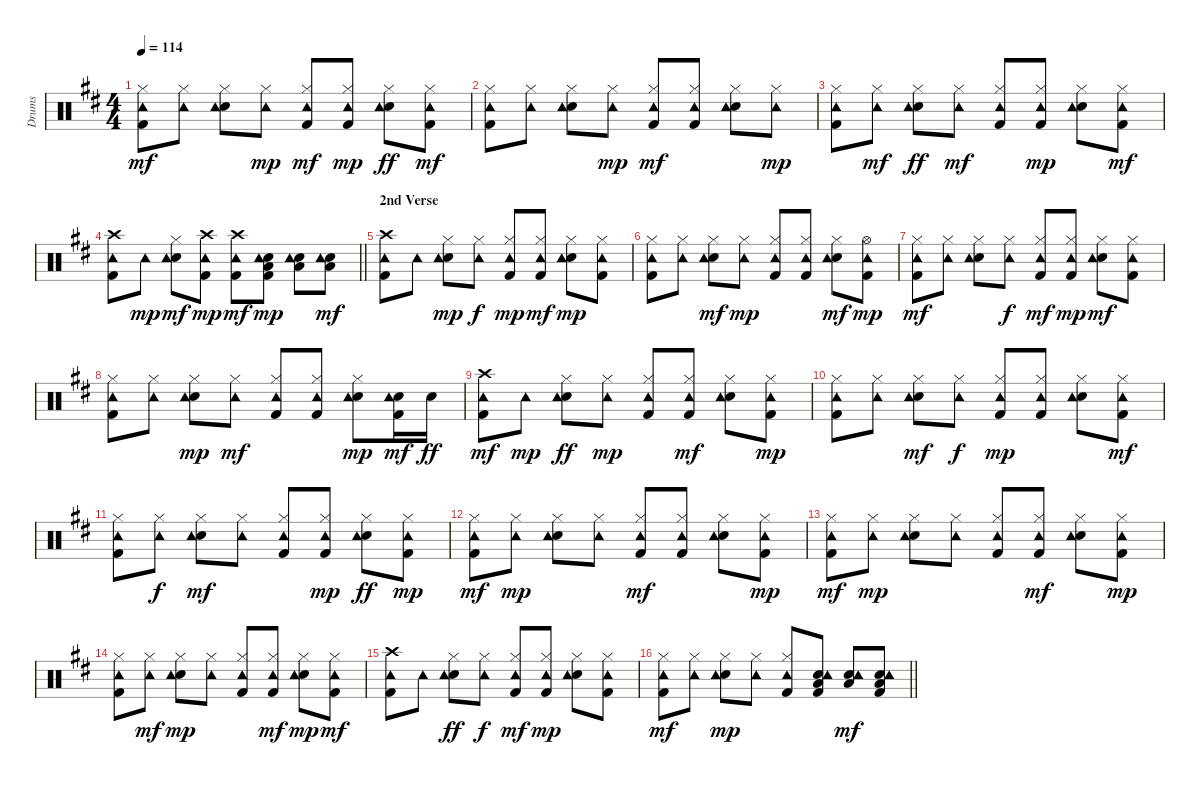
\track ("Drums" "Drums") {instrument percussion}
\staff {score}
\articulation defaults
\ts (4 4)
\tempo 114
\clef neutral
\ks d
("Kick (hit) 2" "Hi-Hat (closed)" "Tambourine (hit)").8{dy mf} ("Hi-Hat (closed)" "Tambourine (hit)").8 ("Snare (hit) 2" "Hi-Hat (closed)" "Tambourine (hit)").8 ("Hi-Hat (closed)" "Tambourine (hit)").8{dy mp} ("Kick (hit) 2" "Hi-Hat (closed)" "Tambourine (hit)").8{dy mf} ("Kick (hit) 2" "Hi-Hat (closed)" "Tambourine (hit)").8{dy mp} ("Snare (hit) 2" "Hi-Hat (closed)" "Tambourine (hit)").8{dy ff} ("Kick (hit) 2" "Hi-Hat (closed)" "Tambourine (hit)").8{dy mf} |
("Kick (hit) 2" "Hi-Hat (closed)" "Tambourine (hit)").8 ("Hi-Hat (closed)" "Tambourine (hit)").8 ("Snare (hit) 2" "Hi-Hat (closed)" "Tambourine (hit)").8 ("Hi-Hat (closed)" "Tambourine (hit)").8{dy mp} ("Kick (hit) 2" "Hi-Hat (closed)" "Tambourine (hit)").8{dy mf} ("Kick (hit) 2" "Hi-Hat (closed)" "Tambourine (hit)").8 ("Snare (hit) 2" "Hi-Hat (closed)" "Tambourine (hit)").8 ("Hi-Hat (closed)" "Tambourine (hit)").8{dy mp} |
("Kick (hit) 2" "Hi-Hat (closed)" "Tambourine (hit)").8 ("Hi-Hat (closed)" "Tambourine (hit)").8{dy mf} ("Snare (hit) 2" "Hi-Hat (closed)" "Tambourine (hit)").8{dy ff} ("Hi-Hat (closed)" "Tambourine (hit)").8{dy mf} ("Kick (hit) 2" "Hi-Hat (closed)" "Tambourine (hit)").8 ("Kick (hit) 2" "Hi-Hat (closed)" "Tambourine (hit)").8{dy mp} ("Snare (hit) 2" "Hi-Hat (closed)" "Tambourine (hit)").8 ("Kick (hit) 2" "Hi-Hat (closed)" "Tambourine (hit)").8{dy mf} |
\barLineRight lightlight
("Kick (hit) 2" "Crash high (hit)" "Tambourine (hit)").8 "Tambourine (hit)".8{dy mp} ("Snare (hit) 2" "Hi-Hat (closed)" "Tambourine (hit)").8{dy mf} ("Kick (hit) 2" "Crash high (hit)" "Tambourine (hit)").8{dy mp} ("Kick (hit) 2" "Crash high (hit)" "Tambourine (hit)").8{dy mf} ("Kick (hit) 2" "Snare (hit) 2" "Low Floor Tom (hit)" "Tambourine (hit)").8{dy mp} ("Snare (hit) 2" "Low Floor Tom (hit)" "Tambourine (hit)").8 ("Snare (hit) 2" "Low Floor Tom (hit)" "Tambourine (hit)").8{dy mf} |
\section ("" "2nd Verse")
("Kick (hit) 2" "Crash high (hit)" "Tambourine (hit)").8 "Tambourine (hit)".8 ("Snare (hit) 2" "Hi-Hat (closed)" "Tambourine (hit)").8{dy mp} ("Hi-Hat (closed)" "Tambourine (hit)").8{dy f} ("Kick (hit) 2" "Hi-Hat (closed)" "Tambourine (hit)").8{dy mp} ("Kick (hit) 2" "Hi-Hat (closed)" "Tambourine (hit)").8{dy mf} ("Snare (hit) 2" "Hi-Hat (closed)" "Tambourine (hit)").8{dy mp} ("Kick (hit) 2" "Hi-Hat (closed)" "Tambourine (hit)").8 |
("Kick (hit) 2" "Hi-Hat (closed)" "Tambourine (hit)").8 ("Hi-Hat (closed)" "Tambourine (hit)").8 ("Snare (hit) 2" "Hi-Hat (closed)" "Tambourine (hit)").8{dy mf} ("Hi-Hat (closed)" "Tambourine (hit)").8{dy mp} ("Kick (hit) 2" "Hi-Hat (closed)" "Tambourine (hit)").8 ("Kick (hit) 2" "Hi-Hat (closed)" "Tambourine (hit)").8 ("Snare (hit) 2" "Hi-Hat (closed)" "Tambourine (hit)").8{dy mf} ("Kick (hit) 2" "Hi-Hat (open)" "Tambourine (hit)").8{dy mp} |
("Kick (hit) 2" "Hi-Hat (closed)" "Tambourine (hit)").8{dy mf} ("Hi-Hat (closed)" "Tambourine (hit)").8 ("Snare (hit) 2" "Hi-Hat (closed)" "Tambourine (hit)").8 ("Hi-Hat (closed)" "Tambourine (hit)").8{dy f} ("Kick (hit) 2" "Hi-Hat (closed)" "Tambourine (hit)").8{dy mf} ("Kick (hit) 2" "Hi-Hat (closed)" "Tambourine (hit)").8{dy mp} ("Snare (hit) 2" "Hi-Hat (closed)" "Tambourine (hit)").8{dy mf} ("Kick (hit) 2" "Hi-Hat (closed)" "Tambourine (hit)").8 |
("Kick (hit) 2" "Hi-Hat (closed)" "Tambourine (hit)").8 ("Hi-Hat (closed)" "Tambourine (hit)").8 ("Snare (hit) 2" "Hi-Hat (closed)" "Tambourine (hit)").8{dy mp} ("Hi-Hat (closed)" "Tambourine (hit)").8{dy mf} ("Kick (hit) 2" "Hi-Hat (closed)" "Tambourine (hit)").8 ("Kick (hit) 2" "Hi-Hat (closed)" "Tambourine (hit)").8 ("Snare (hit) 2" "Hi-Hat (closed)" "Tambourine (hit)").8{dy mp} ("Kick (hit) 2" "Snare (hit) 2" "Tambourine (hit)").16{dy mf} "Snare (hit) 2".16{dy ff} |
("Kick (hit) 2" "Crash high (hit)" "Tambourine (hit)").8{dy mf} "Tambourine (hit)".8{dy mp} ("Snare (hit) 2" "Hi-Hat (closed)" "Tambourine (hit)").8{dy ff} ("Hi-Hat (closed)" "Tambourine (hit)").8{dy mp} ("Kick (hit) 2" "Hi-Hat (closed)" "Tambourine (hit)").8 ("Kick (hit) 2" "Hi-Hat (closed)" "Tambourine (hit)").8{dy mf} ("Snare (hit) 2" "Hi-Hat (closed)" "Tambourine (hit)").8 ("Kick (hit) 2" "Hi-Hat (closed)" "Tambourine (hit)").8{dy mp} |
("Kick (hit) 2" "Hi-Hat (closed)" "Tambourine (hit)").8 ("Hi-Hat (closed)" "Tambourine (hit)").8 ("Snare (hit) 2" "Hi-Hat (closed)" "Tambourine (hit)").8{dy mf} ("Hi-Hat (closed)" "Tambourine (hit)").8{dy f} ("Kick (hit) 2" "Hi-Hat (closed)" "Tambourine (hit)").8{dy mp} ("Kick (hit) 2" "Hi-Hat (closed)" "Tambourine (hit)").8 ("Snare (hit) 2" "Hi-Hat (closed)" "Tambourine (hit)").8 ("Kick (hit) 2" "Hi-Hat (closed)" "Tambourine (hit)").8{dy mf} |
("Kick (hit) 2" "Hi-Hat (closed)" "Tambourine (hit)").8 ("Hi-Hat (closed)" "Tambourine (hit)").8{dy f} ("Snare (hit) 2" "Hi-Hat (closed)" "Tambourine (hit)").8{dy mf} ("Hi-Hat (closed)" "Tambourine (hit)").8 ("Kick (hit) 2" "Hi-Hat (closed)" "Tambourine (hit)").8 ("Kick (hit) 2" "Hi-Hat (closed)" "Tambourine (hit)").8{dy mp} ("Snare (hit) 2" "Hi-Hat (closed)" "Tambourine (hit)").8{dy ff} ("Kick (hit) 2" "Hi-Hat (closed)" "Tambourine (hit)").8{dy mp} |
("Kick (hit) 2" "Hi-Hat (closed)" "Tambourine (hit)").8{dy mf} ("Hi-Hat (closed)" "Tambourine (hit)").8{dy mp} ("Snare (hit) 2" "Hi-Hat (closed)" "Tambourine (hit)").8 ("Hi-Hat (closed)" "Tambourine (hit)").8 ("Kick (hit) 2" "Hi-Hat (closed)" "Tambourine (hit)").8{dy mf} ("Kick (hit) 2" "Hi-Hat (closed)" "Tambourine (hit)").8 ("Snare (hit) 2" "Hi-Hat (closed)" "Tambourine (hit)").8 ("Kick (hit) 2" "Hi-Hat (closed)" "Tambourine (hit)").8{dy mp} |
("Kick (hit) 2" "Hi-Hat (closed)" "Tambourine (hit)").8{dy mf} ("Hi-Hat (closed)" "Tambourine (hit)").8{dy mp} ("Snare (hit) 2" "Hi-Hat (closed)" "Tambourine (hit)").8 ("Hi-Hat (closed)" "Tambourine (hit)").8 ("Kick (hit) 2" "Hi-Hat (closed)" "Tambourine (hit)").8 ("Kick (hit) 2" "Hi-Hat (closed)" "Tambourine (hit)").8{dy mf} ("Snare (hit) 2" "Hi-Hat (closed)" "Tambourine (hit)").8 ("Kick (hit) 2" "Hi-Hat (closed)" "Tambourine (hit)").8{dy mp} |
("Kick (hit) 2" "Hi-Hat (closed)" "Tambourine (hit)").8 ("Hi-Hat (closed)" "Tambourine (hit)").8{dy mf} ("Snare (hit) 2" "Hi-Hat (closed)" "Tambourine (hit)").8{dy mp} ("Hi-Hat (closed)" "Tambourine (hit)").8 ("Kick (hit) 2" "Hi-Hat (closed)" "Tambourine (hit)").8 ("Kick (hit) 2" "Hi-Hat (closed)" "Tambourine (hit)").8{dy mf} ("Snare (hit) 2" "Hi-Hat (closed)" "Tambourine (hit)").8{dy mp} ("Kick (hit) 2" "Hi-Hat (closed)" "Tambourine (hit)").8{dy mf} |
("Kick (hit) 2" "Crash high (hit)" "Tambourine (hit)").8 "Tambourine (hit)".8 ("Snare (hit) 2" "Hi-Hat (closed)" "Tambourine (hit)").8{dy ff} ("Hi-Hat (closed)" "Tambourine (hit)").8{dy f} ("Kick (hit) 2" "Hi-Hat (closed)" "Tambourine (hit)").8{dy mf} ("Kick (hit) 2" "Hi-Hat (closed)" "Tambourine (hit)").8{dy mp} ("Snare (hit) 2" "Hi-Hat (closed)" "Tambourine (hit)").8 ("Kick (hit) 2" "Hi-Hat (closed)" "Tambourine (hit)").8 |
\barLineRight lightlight
("Kick (hit) 2" "Hi-Hat (closed)" "Tambourine (hit)").8{dy mf} ("Hi-Hat (closed)" "Tambourine (hit)").8 ("Snare (hit) 2" "Hi-Hat (closed)" "Tambourine (hit)").8{dy mp} ("Hi-Hat (closed)" "Tambourine (hit)").8 ("Kick (hit) 2" "Hi-Hat (closed)" "Tambourine (hit)").8 ("Kick (hit) 2" "Snare (hit) 2" "Low Floor Tom (hit)" "Tambourine (hit)").8 ("Snare (hit) 2" "Low Floor Tom (hit)" "Tambourine (hit)").8{dy mf} ("Kick (hit) 2" "Snare (hit) 2" "Low Floor Tom (hit)" "Tambourine (hit)").8
